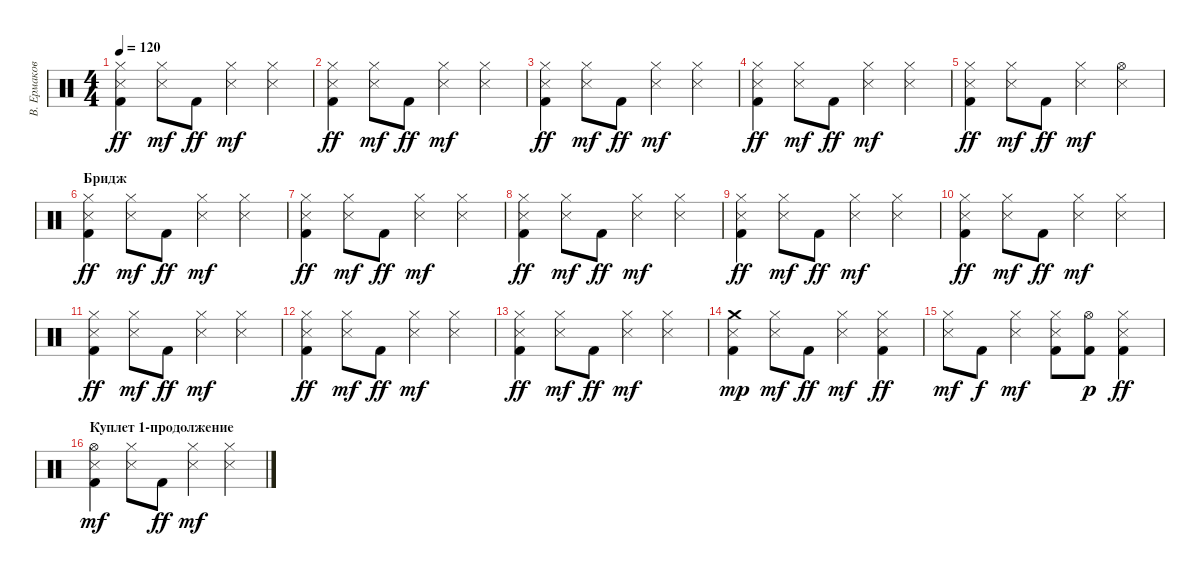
\track ("В. Ермаков" "В. Ермаков") {instrument percussion}
\staff {score}
\articulation defaults
\ts (4 4)
\tempo 120
\clef neutral
\ks c
("Snare (side stick) 3" "Kick (hit) 2" "Hi-Hat (closed)").4{dy ff} ("Snare (side stick) 3" "Hi-Hat (closed)").8{dy mf} "Kick (hit) 2".8{dy ff} ("Snare (side stick) 3" "Hi-Hat (closed)").4{dy mf} ("Snare (side stick) 3" "Hi-Hat (closed)").4 |
("Snare (side stick) 3" "Kick (hit) 2" "Hi-Hat (closed)").4{dy ff} ("Snare (side stick) 3" "Hi-Hat (closed)").8{dy mf} "Kick (hit) 2".8{dy ff} ("Snare (side stick) 3" "Hi-Hat (closed)").4{dy mf} ("Snare (side stick) 3" "Hi-Hat (closed)").4 |
("Snare (side stick) 3" "Kick (hit) 2" "Hi-Hat (closed)").4{dy ff} ("Snare (side stick) 3" "Hi-Hat (closed)").8{dy mf} "Kick (hit) 2".8{dy ff} ("Snare (side stick) 3" "Hi-Hat (closed)").4{dy mf} ("Snare (side stick) 3" "Hi-Hat (closed)").4 |
("Snare (side stick) 3" "Kick (hit) 2" "Hi-Hat (closed)").4{dy ff} ("Snare (side stick) 3" "Hi-Hat (closed)").8{dy mf} "Kick (hit) 2".8{dy ff} ("Snare (side stick) 3" "Hi-Hat (closed)").4{dy mf} ("Snare (side stick) 3" "Hi-Hat (closed)").4 |
("Snare (side stick) 3" "Kick (hit) 2" "Hi-Hat (closed)").4{dy ff} ("Snare (side stick) 3" "Hi-Hat (closed)").8{dy mf} "Kick (hit) 2".8{dy ff} ("Snare (side stick) 3" "Hi-Hat (closed)").4{dy mf} ("Snare (side stick) 3" "Hi-Hat (open)").4 |
\section ("" "Бридж")
("Snare (side stick) 3" "Kick (hit) 2" "Hi-Hat (closed)").4{dy ff} ("Snare (side stick) 3" "Hi-Hat (closed)").8{dy mf} "Kick (hit) 2".8{dy ff} ("Snare (side stick) 3" "Hi-Hat (closed)").4{dy mf} ("Snare (side stick) 3" "Hi-Hat (closed)").4 |
("Snare (side stick) 3" "Kick (hit) 2" "Hi-Hat (closed)").4{dy ff} ("Snare (side stick) 3" "Hi-Hat (closed)").8{dy mf} "Kick (hit) 2".8{dy ff} ("Snare (side stick) 3" "Hi-Hat (closed)").4{dy mf} ("Snare (side stick) 3" "Hi-Hat (closed)").4 |
("Snare (side stick) 3" "Kick (hit) 2" "Hi-Hat (closed)").4{dy ff} ("Snare (side stick) 3" "Hi-Hat (closed)").8{dy mf} "Kick (hit) 2".8{dy ff} ("Snare (side stick) 3" "Hi-Hat (closed)").4{dy mf} ("Snare (side stick) 3" "Hi-Hat (closed)").4 |
("Snare (side stick) 3" "Kick (hit) 2" "Hi-Hat (closed)").4{dy ff} ("Snare (side stick) 3" "Hi-Hat (closed)").8{dy mf} "Kick (hit) 2".8{dy ff} ("Snare (side stick) 3" "Hi-Hat (closed)").4{dy mf} ("Snare (side stick) 3" "Hi-Hat (closed)").4 |
("Snare (side stick) 3" "Kick (hit) 2" "Hi-Hat (closed)").4{dy ff} ("Snare (side stick) 3" "Hi-Hat (closed)").8{dy mf} "Kick (hit) 2".8{dy ff} ("Snare (side stick) 3" "Hi-Hat (closed)").4{dy mf} ("Snare (side stick) 3" "Hi-Hat (closed)").4 |
("Snare (side stick) 3" "Kick (hit) 2" "Hi-Hat (closed)").4{dy ff} ("Snare (side stick) 3" "Hi-Hat (closed)").8{dy mf} "Kick (hit) 2".8{dy ff} ("Snare (side stick) 3" "Hi-Hat (closed)").4{dy mf} ("Snare (side stick) 3" "Hi-Hat (closed)").4 |
("Snare (side stick) 3" "Kick (hit) 2" "Hi-Hat (closed)").4{dy ff} ("Snare (side stick) 3" "Hi-Hat (closed)").8{dy mf} "Kick (hit) 2".8{dy ff} ("Snare (side stick) 3" "Hi-Hat (closed)").4{dy mf} ("Snare (side stick) 3" "Hi-Hat (closed)").4 |
("Snare (side stick) 3" "Kick (hit) 2" "Hi-Hat (closed)").4{dy ff} ("Snare (side stick) 3" "Hi-Hat (closed)").8{dy mf} "Kick (hit) 2".8{dy ff} ("Snare (side stick) 3" "Hi-Hat (closed)").4{dy mf} ("Snare (side stick) 3" "Hi-Hat (closed)").4 |
("Snare (side stick) 3" "Kick (hit) 2" "Crash medium (hit)").4{dy mp} ("Snare (side stick) 3" "Hi-Hat (closed)").8{dy mf} "Kick (hit) 2".8{dy ff} ("Snare (side stick) 3" "Hi-Hat (closed)").4{dy mf} ("Snare (side stick) 3" "Kick (hit) 2" "Hi-Hat (closed)").4{dy ff} |
("Snare (side stick) 3" "Hi-Hat (closed)").8{dy mf} "Kick (hit) 2".8{dy f} ("Snare (side stick) 3" "Hi-Hat (closed)").4{dy mf} ("Snare (side stick) 3" "Kick (hit) 2" "Hi-Hat (closed)").8 ("Kick (hit) 2" "Hi-Hat (open)").8{dy p} ("Snare (side stick) 3" "Kick (hit) 2" "Hi-Hat (closed)").4{dy ff} |
\section ("" "Куплет 1-продолжение")
("Snare (side stick) 3" "Kick (hit) 2" "Hi-Hat (open)").4{dy mf} ("Snare (side stick) 3" "Hi-Hat (closed)").8 "Kick (hit) 2".8{dy ff} ("Snare (side stick) 3" "Hi-Hat (closed)").4{dy mf} ("Snare (side stick) 3" "Hi-Hat (closed)").4
